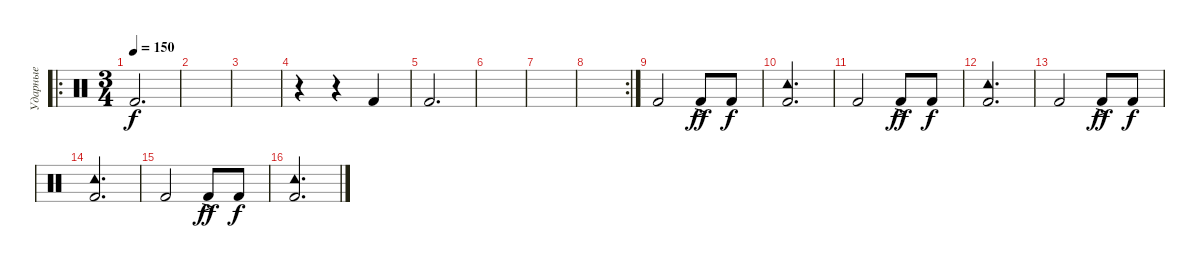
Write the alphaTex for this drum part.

\track ("Ударные" "Ударные") {instrument percussion}
\staff {score}
\articulation defaults
\ro
\ts (3 4)
\tempo 150
\clef neutral
\ks c "Kick (hit) 2".2{d dy f}
|
|
|
r.4 r.4 "Kick (hit) 2".4 |
"Kick (hit) 2".2{d} |
|
|
\rc 2
|
"Kick (hit) 2".2 "Kick (hit) 2"{ac}.8{dy ff} "Kick (hit) 2".8{dy f} |
("Kick (hit) 2" "Tambourine (hit)").2{d} |
"Kick (hit) 2".2 "Kick (hit) 2"{ac}.8{dy ff} "Kick (hit) 2".8{dy f} |
("Kick (hit) 2" "Tambourine (hit)").2{d} |
"Kick (hit) 2".2 "Kick (hit) 2"{ac}.8{dy ff} "Kick (hit) 2".8{dy f} |
("Kick (hit) 2" "Tambourine (hit)").2{d} |
"Kick (hit) 2".2 "Kick (hit) 2"{ac}.8{dy ff} "Kick (hit) 2".8{dy f} |
("Kick (hit) 2" "Tambourine (hit)").2{d}
